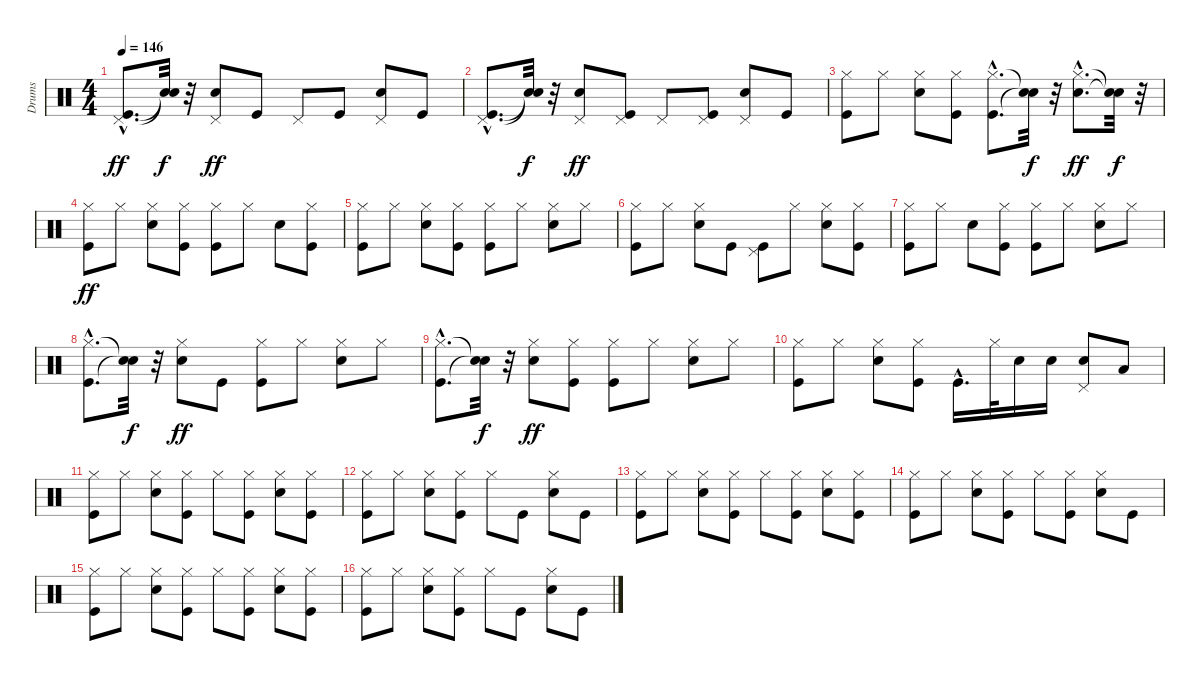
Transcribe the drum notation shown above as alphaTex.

\track ("Drums" "Drums") {instrument percussion}
\staff {score}
\articulation defaults
\ts (4 4)
\tempo 146
\clef neutral
\ks c
("Kick (hit)"{hac} "Pedal Hi-Hat (hit)"{hac}).8{d dy ff} ("Snare (hit)"{t} "Snare (hit)"{t}).32{dy f} r.32 ("Snare (hit) 2" "Pedal Hi-Hat (hit)").8{dy ff} "Kick (hit)".8 "Pedal Hi-Hat (hit)".8 "Kick (hit)".8 ("Snare (hit) 2" "Pedal Hi-Hat (hit)").8 "Kick (hit)".8 |
("Kick (hit)"{hac} "Pedal Hi-Hat (hit)"{hac}).8{d} ("Snare (hit)"{t} "Snare (hit)"{t}).32{dy f} r.32 ("Snare (hit) 2" "Pedal Hi-Hat (hit)").8{dy ff} ("Kick (hit)" "Pedal Hi-Hat (hit)").8 "Pedal Hi-Hat (hit)".8 ("Kick (hit)" "Pedal Hi-Hat (hit)").8 ("Snare (hit) 2" "Pedal Hi-Hat (hit)").8 "Kick (hit)".8 |
("Kick (hit)" "Hi-Hat (closed)").8 "Hi-Hat (closed)".8 ("Snare (hit) 2" "Hi-Hat (closed)").8 ("Kick (hit)" "Hi-Hat (closed)").8 ("Kick (hit)"{hac} "Hi-Hat (closed)"{hac}).8{d} ("Snare (hit)"{t} "Snare (hit)"{t}).32{dy f} r.32 ("Snare (hit) 2"{hac} "Hi-Hat (closed)"{hac}).8{d dy ff} ("Snare (hit)"{t} "Snare (hit)"{t}).32{dy f} r.32 |
("Kick (hit)" "Hi-Hat (closed)").8{dy ff} "Hi-Hat (closed)".8 ("Snare (hit) 2" "Hi-Hat (closed)").8 ("Kick (hit)" "Hi-Hat (closed)").8 ("Kick (hit)" "Hi-Hat (closed)").8 "Hi-Hat (closed)".8 "Snare (hit) 2".8 ("Kick (hit)" "Hi-Hat (closed)").8 |
("Kick (hit)" "Hi-Hat (closed)").8 "Hi-Hat (closed)".8 ("Snare (hit) 2" "Hi-Hat (closed)").8 ("Kick (hit)" "Hi-Hat (closed)").8 ("Kick (hit)" "Hi-Hat (closed)").8 "Hi-Hat (closed)".8 ("Snare (hit) 2" "Hi-Hat (closed)").8 "Hi-Hat (closed)".8 |
("Kick (hit)" "Hi-Hat (closed)").8 "Hi-Hat (closed)".8 ("Snare (hit) 2" "Hi-Hat (closed)").8 "Kick (hit)".8 ("Kick (hit)" "Pedal Hi-Hat (hit)").8 "Hi-Hat (closed)".8 ("Snare (hit) 2" "Hi-Hat (closed)").8 ("Kick (hit)" "Hi-Hat (closed)").8 |
("Kick (hit)" "Hi-Hat (closed)").8 "Hi-Hat (closed)".8 "Snare (hit) 2".8 ("Kick (hit)" "Hi-Hat (closed)").8 ("Kick (hit)" "Hi-Hat (closed)").8 "Hi-Hat (closed)".8 ("Snare (hit) 2" "Hi-Hat (closed)").8 "Hi-Hat (closed)".8 |
("Kick (hit)"{hac} "Hi-Hat (closed)"{hac}).8{d} ("Snare (hit)"{t} "Snare (hit)"{t}).32{dy f} r.32 ("Snare (hit) 2" "Hi-Hat (closed)").8{dy ff} "Kick (hit)".8 ("Kick (hit)" "Hi-Hat (closed)").8 "Hi-Hat (closed)".8 ("Snare (hit) 2" "Hi-Hat (closed)").8 "Hi-Hat (closed)".8 |
("Kick (hit)"{hac} "Hi-Hat (closed)"{hac}).8{d} ("Snare (hit)"{t} "Snare (hit)"{t}).32{dy f} r.32 ("Snare (hit) 2" "Hi-Hat (closed)").8{dy ff} ("Kick (hit)" "Hi-Hat (closed)").8 ("Kick (hit)" "Hi-Hat (closed)").8 "Hi-Hat (closed)".8 ("Snare (hit) 2" "Hi-Hat (closed)").8 "Hi-Hat (closed)".8 |
("Kick (hit)" "Hi-Hat (closed)").8 "Hi-Hat (closed)".8 ("Snare (hit) 2" "Hi-Hat (closed)").8 ("Kick (hit)" "Hi-Hat (closed)").8 "Kick (hit)"{hac}.16{d} "Hi-Hat (closed)".32 "Snare (hit) 2".16 "Snare (hit) 2".16 ("Snare (hit) 2" "Pedal Hi-Hat (hit)").8 "Low Floor Tom (hit)".8 |
("Kick (hit)" "Hi-Hat (closed)").8 "Hi-Hat (closed)".8 ("Snare (hit) 2" "Hi-Hat (closed)").8 ("Kick (hit)" "Hi-Hat (closed)").8 "Hi-Hat (closed)".8 ("Kick (hit)" "Hi-Hat (closed)").8 ("Snare (hit) 2" "Hi-Hat (closed)").8 ("Kick (hit)" "Hi-Hat (closed)").8 |
("Kick (hit)" "Hi-Hat (closed)").8 "Hi-Hat (closed)".8 ("Snare (hit) 2" "Hi-Hat (closed)").8 ("Kick (hit)" "Hi-Hat (closed)").8 "Hi-Hat (closed)".8 "Kick (hit)".8 ("Snare (hit) 2" "Hi-Hat (closed)").8 "Kick (hit)".8 |
("Kick (hit)" "Hi-Hat (closed)").8 "Hi-Hat (closed)".8 ("Snare (hit) 2" "Hi-Hat (closed)").8 ("Kick (hit)" "Hi-Hat (closed)").8 "Hi-Hat (closed)".8 ("Kick (hit)" "Hi-Hat (closed)").8 ("Snare (hit) 2" "Hi-Hat (closed)").8 ("Kick (hit)" "Hi-Hat (closed)").8 |
("Kick (hit)" "Hi-Hat (closed)").8 "Hi-Hat (closed)".8 ("Snare (hit) 2" "Hi-Hat (closed)").8 ("Kick (hit)" "Hi-Hat (closed)").8 "Hi-Hat (closed)".8 ("Kick (hit)" "Hi-Hat (closed)").8 ("Snare (hit) 2" "Hi-Hat (closed)").8 "Kick (hit)".8 |
("Kick (hit)" "Hi-Hat (closed)").8 "Hi-Hat (closed)".8 ("Snare (hit) 2" "Hi-Hat (closed)").8 ("Kick (hit)" "Hi-Hat (closed)").8 "Hi-Hat (closed)".8 ("Kick (hit)" "Hi-Hat (closed)").8 ("Snare (hit) 2" "Hi-Hat (closed)").8 ("Kick (hit)" "Hi-Hat (closed)").8 |
("Kick (hit)" "Hi-Hat (closed)").8 "Hi-Hat (closed)".8 ("Snare (hit) 2" "Hi-Hat (closed)").8 ("Kick (hit)" "Hi-Hat (closed)").8 "Hi-Hat (closed)".8 "Kick (hit)".8 ("Snare (hit) 2" "Hi-Hat (closed)").8 "Kick (hit)".8
